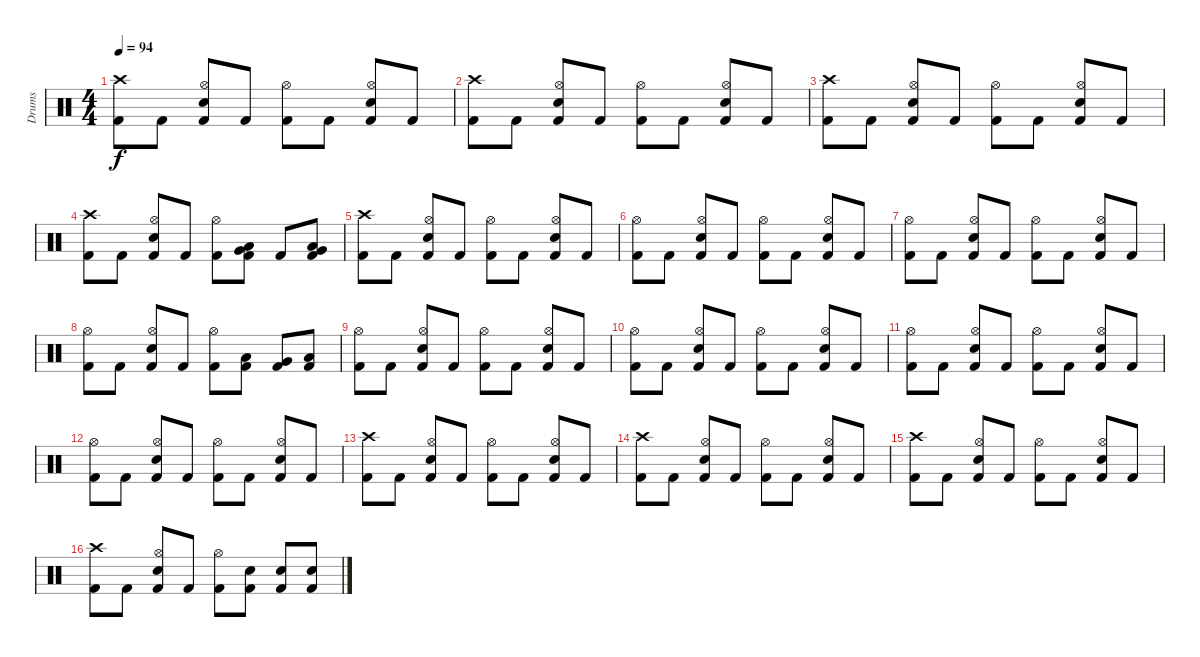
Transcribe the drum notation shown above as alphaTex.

\track ("Drums" "Drums") {instrument percussion}
\staff {score}
\articulation defaults
\ts (4 4)
\tempo 94
\clef neutral
\ks c
("Crash high (hit)" "Kick (hit) 2").8{dy f} "Kick (hit) 2".8 ("Hi-Hat (open)" "Snare (hit) 2" "Kick (hit) 2").8 "Kick (hit) 2".8 ("Hi-Hat (open)" "Kick (hit) 2").8 "Kick (hit) 2".8 ("Hi-Hat (open)" "Snare (hit) 2" "Kick (hit) 2").8 "Kick (hit) 2".8 |
("Crash high (hit)" "Kick (hit) 2").8 "Kick (hit) 2".8 ("Hi-Hat (open)" "Snare (hit) 2" "Kick (hit) 2").8 "Kick (hit) 2".8 ("Hi-Hat (open)" "Kick (hit) 2").8 "Kick (hit) 2".8 ("Hi-Hat (open)" "Snare (hit) 2" "Kick (hit) 2").8 "Kick (hit) 2".8 |
("Crash high (hit)" "Kick (hit) 2").8 "Kick (hit) 2".8 ("Hi-Hat (open)" "Snare (hit) 2" "Kick (hit) 2").8 "Kick (hit) 2".8 ("Hi-Hat (open)" "Kick (hit) 2").8 "Kick (hit) 2".8 ("Hi-Hat (open)" "Snare (hit) 2" "Kick (hit) 2").8 "Kick (hit) 2".8 |
("Crash high (hit)" "Kick (hit) 2").8 "Kick (hit) 2".8 ("Hi-Hat (open)" "Snare (hit) 2" "Kick (hit) 2").8 "Kick (hit) 2".8 ("Hi-Hat (open)" "Kick (hit) 2").8 ("Low Tom (hit)" "Very Low Tom (hit)" "Kick (hit) 2").8 "Kick (hit) 2".8 ("Low Tom (hit)" "Very Low Tom (hit)" "Kick (hit) 2").8 |
("Crash high (hit)" "Kick (hit) 2").8 "Kick (hit) 2".8 ("Hi-Hat (open)" "Snare (hit) 2" "Kick (hit) 2").8 "Kick (hit) 2".8 ("Hi-Hat (open)" "Kick (hit) 2").8 "Kick (hit) 2".8 ("Hi-Hat (open)" "Snare (hit) 2" "Kick (hit) 2").8 "Kick (hit) 2".8 |
("Hi-Hat (open)" "Kick (hit) 2").8 "Kick (hit) 2".8 ("Hi-Hat (open)" "Snare (hit) 2" "Kick (hit) 2").8 "Kick (hit) 2".8 ("Hi-Hat (open)" "Kick (hit) 2").8 "Kick (hit) 2".8 ("Hi-Hat (open)" "Snare (hit) 2" "Kick (hit) 2").8 "Kick (hit) 2".8 |
("Hi-Hat (open)" "Kick (hit) 2").8 "Kick (hit) 2".8 ("Hi-Hat (open)" "Snare (hit) 2" "Kick (hit) 2").8 "Kick (hit) 2".8 ("Hi-Hat (open)" "Kick (hit) 2").8 "Kick (hit) 2".8 ("Hi-Hat (open)" "Snare (hit) 2" "Kick (hit) 2").8 "Kick (hit) 2".8 |
("Hi-Hat (open)" "Kick (hit) 2").8 "Kick (hit) 2".8 ("Hi-Hat (open)" "Snare (hit) 2" "Kick (hit) 2").8 "Kick (hit) 2".8 ("Hi-Hat (open)" "Kick (hit) 2").8 ("Low Tom (hit)" "Kick (hit) 2").8 ("Very Low Tom (hit)" "Kick (hit) 2").8 ("Low Floor Tom (hit)" "Kick (hit) 2").8 |
("Hi-Hat (open)" "Kick (hit) 2").8 "Kick (hit) 2".8 ("Hi-Hat (open)" "Snare (hit) 2" "Kick (hit) 2").8 "Kick (hit) 2".8 ("Hi-Hat (open)" "Kick (hit) 2").8 "Kick (hit) 2".8 ("Hi-Hat (open)" "Snare (hit) 2" "Kick (hit) 2").8 "Kick (hit) 2".8 |
("Hi-Hat (open)" "Kick (hit) 2").8 "Kick (hit) 2".8 ("Hi-Hat (open)" "Snare (hit) 2" "Kick (hit) 2").8 "Kick (hit) 2".8 ("Hi-Hat (open)" "Kick (hit) 2").8 "Kick (hit) 2".8 ("Hi-Hat (open)" "Snare (hit) 2" "Kick (hit) 2").8 "Kick (hit) 2".8 |
("Hi-Hat (open)" "Kick (hit) 2").8 "Kick (hit) 2".8 ("Hi-Hat (open)" "Snare (hit) 2" "Kick (hit) 2").8 "Kick (hit) 2".8 ("Hi-Hat (open)" "Kick (hit) 2").8 "Kick (hit) 2".8 ("Hi-Hat (open)" "Snare (hit) 2" "Kick (hit) 2").8 "Kick (hit) 2".8 |
("Hi-Hat (open)" "Kick (hit) 2").8 "Kick (hit) 2".8 ("Hi-Hat (open)" "Snare (hit) 2" "Kick (hit) 2").8 "Kick (hit) 2".8 ("Hi-Hat (open)" "Kick (hit) 2").8 "Kick (hit) 2".8 ("Hi-Hat (open)" "Snare (hit) 2" "Kick (hit) 2").8 "Kick (hit) 2".8 |
("Crash high (hit)" "Kick (hit) 2").8 "Kick (hit) 2".8 ("Hi-Hat (open)" "Snare (hit) 2" "Kick (hit) 2").8 "Kick (hit) 2".8 ("Hi-Hat (open)" "Kick (hit) 2").8 "Kick (hit) 2".8 ("Hi-Hat (open)" "Snare (hit) 2" "Kick (hit) 2").8 "Kick (hit) 2".8 |
("Crash high (hit)" "Kick (hit) 2").8 "Kick (hit) 2".8 ("Hi-Hat (open)" "Snare (hit) 2" "Kick (hit) 2").8 "Kick (hit) 2".8 ("Hi-Hat (open)" "Kick (hit) 2").8 "Kick (hit) 2".8 ("Hi-Hat (open)" "Snare (hit) 2" "Kick (hit) 2").8 "Kick (hit) 2".8 |
("Crash high (hit)" "Kick (hit) 2").8 "Kick (hit) 2".8 ("Hi-Hat (open)" "Snare (hit) 2" "Kick (hit) 2").8 "Kick (hit) 2".8 ("Hi-Hat (open)" "Kick (hit) 2").8 "Kick (hit) 2".8 ("Hi-Hat (open)" "Snare (hit) 2" "Kick (hit) 2").8 "Kick (hit) 2".8 |
("Crash high (hit)" "Kick (hit) 2").8 "Kick (hit) 2".8 ("Hi-Hat (open)" "Snare (hit) 2" "Kick (hit) 2").8 "Kick (hit) 2".8 ("Hi-Hat (open)" "Kick (hit) 2").8 ("Snare (hit) 2" "Kick (hit) 2").8 ("Snare (hit) 2" "Kick (hit) 2").8 ("Snare (hit) 2" "Kick (hit) 2").8
